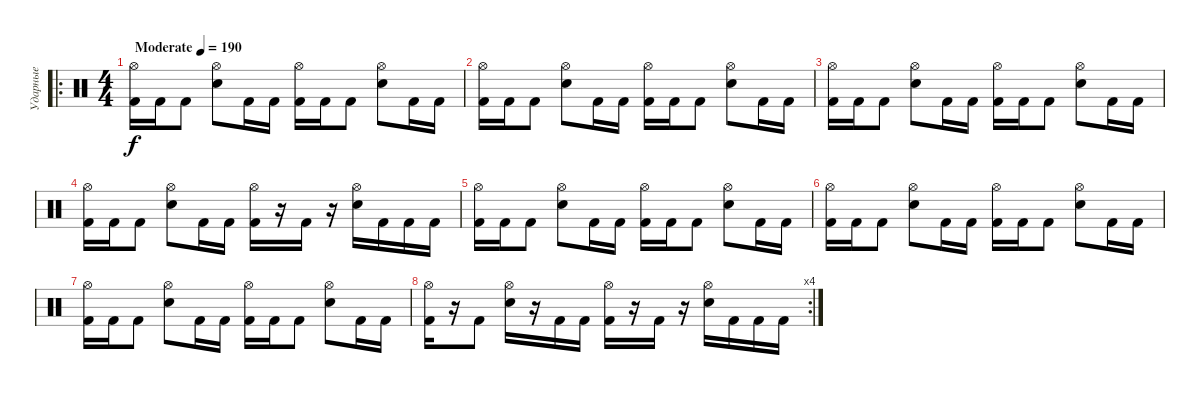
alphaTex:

\track ("Ударные" "Ударные") {instrument percussion}
\staff {score}
\articulation defaults
\ro
\ts (4 4)
\tempo (190 "Moderate")
\clef neutral
\ks c
("Hi-Hat (open)" "Kick (hit) 2").16{dy f} "Kick (hit) 2".16 "Kick (hit) 2".8 ("Hi-Hat (open)" "Electric Snare (hit)").8 "Kick (hit) 2".16 "Kick (hit) 2".16 ("Hi-Hat (open)" "Kick (hit) 2").16 "Kick (hit) 2".16 "Kick (hit) 2".8 ("Hi-Hat (open)" "Electric Snare (hit)").8 "Kick (hit) 2".16 "Kick (hit) 2".16 |
("Hi-Hat (open)" "Kick (hit) 2").16 "Kick (hit) 2".16 "Kick (hit) 2".8 ("Hi-Hat (open)" "Electric Snare (hit)").8 "Kick (hit) 2".16 "Kick (hit) 2".16 ("Hi-Hat (open)" "Kick (hit) 2").16 "Kick (hit) 2".16 "Kick (hit) 2".8 ("Hi-Hat (open)" "Electric Snare (hit)").8 "Kick (hit) 2".16 "Kick (hit) 2".16 |
("Hi-Hat (open)" "Kick (hit) 2").16 "Kick (hit) 2".16 "Kick (hit) 2".8 ("Hi-Hat (open)" "Electric Snare (hit)").8 "Kick (hit) 2".16 "Kick (hit) 2".16 ("Hi-Hat (open)" "Kick (hit) 2").16 "Kick (hit) 2".16 "Kick (hit) 2".8 ("Hi-Hat (open)" "Electric Snare (hit)").8 "Kick (hit) 2".16 "Kick (hit) 2".16 |
("Hi-Hat (open)" "Kick (hit) 2").16 "Kick (hit) 2".16 "Kick (hit) 2".8 ("Hi-Hat (open)" "Electric Snare (hit)").8 "Kick (hit) 2".16 "Kick (hit) 2".16 ("Hi-Hat (open)" "Kick (hit) 2").16 r.16 "Kick (hit) 2".16 r.16 ("Hi-Hat (open)" "Electric Snare (hit)").16 "Kick (hit) 2".16 "Kick (hit) 2".16 "Kick (hit) 2".16 |
("Hi-Hat (open)" "Kick (hit) 2").16 "Kick (hit) 2".16 "Kick (hit) 2".8 ("Hi-Hat (open)" "Electric Snare (hit)").8 "Kick (hit) 2".16 "Kick (hit) 2".16 ("Hi-Hat (open)" "Kick (hit) 2").16 "Kick (hit) 2".16 "Kick (hit) 2".8 ("Hi-Hat (open)" "Electric Snare (hit)").8 "Kick (hit) 2".16 "Kick (hit) 2".16 |
("Hi-Hat (open)" "Kick (hit) 2").16 "Kick (hit) 2".16 "Kick (hit) 2".8 ("Hi-Hat (open)" "Electric Snare (hit)").8 "Kick (hit) 2".16 "Kick (hit) 2".16 ("Hi-Hat (open)" "Kick (hit) 2").16 "Kick (hit) 2".16 "Kick (hit) 2".8 ("Hi-Hat (open)" "Electric Snare (hit)").8 "Kick (hit) 2".16 "Kick (hit) 2".16 |
("Hi-Hat (open)" "Kick (hit) 2").16 "Kick (hit) 2".16 "Kick (hit) 2".8 ("Hi-Hat (open)" "Electric Snare (hit)").8 "Kick (hit) 2".16 "Kick (hit) 2".16 ("Hi-Hat (open)" "Kick (hit) 2").16 "Kick (hit) 2".16 "Kick (hit) 2".8 ("Hi-Hat (open)" "Electric Snare (hit)").8 "Kick (hit) 2".16 "Kick (hit) 2".16 |
\rc 4
("Hi-Hat (open)" "Kick (hit) 2").16 r.16 "Kick (hit) 2".8 ("Hi-Hat (open)" "Electric Snare (hit)").16 r.16 "Kick (hit) 2".16 "Kick (hit) 2".16 ("Hi-Hat (open)" "Kick (hit) 2").16 r.16 "Kick (hit) 2".16 r.16 ("Hi-Hat (open)" "Electric Snare (hit)").16 "Kick (hit) 2".16 "Kick (hit) 2".16 "Kick (hit) 2".16
